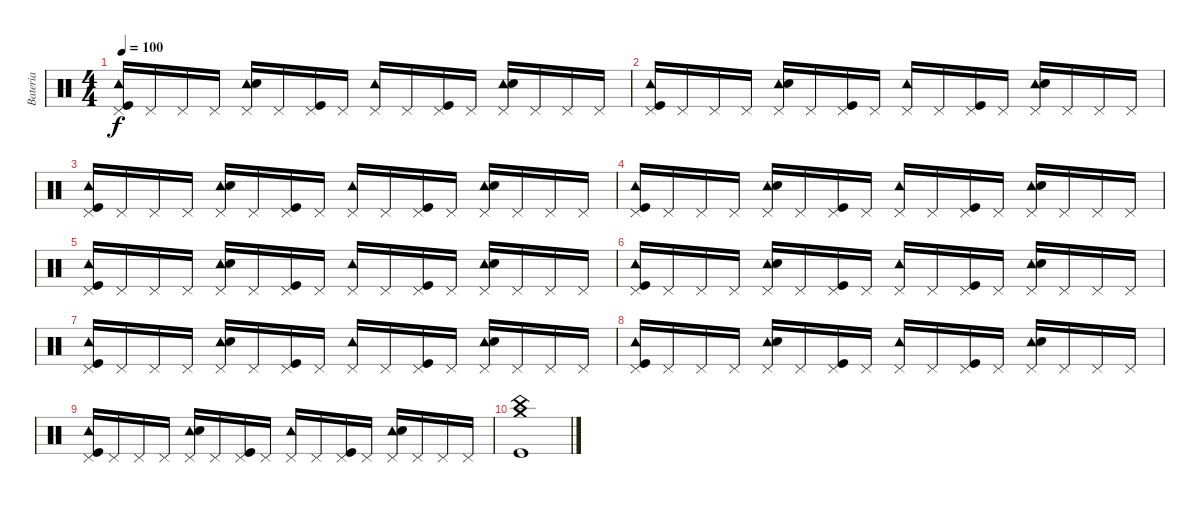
\track ("Bateria" "Bateria") {instrument percussion}
\staff {score}
\articulation defaults
\ts (4 4)
\tempo 100
\clef neutral
\ks c
("Tambourine (hit)" "Pedal Hi-Hat (hit)" "Kick (hit)").16{dy f} "Pedal Hi-Hat (hit)".16 "Pedal Hi-Hat (hit)".16 "Pedal Hi-Hat (hit)".16 ("Tambourine (hit)" "Pedal Hi-Hat (hit)" "Snare (hit) 2").16 "Pedal Hi-Hat (hit)".16 ("Pedal Hi-Hat (hit)" "Kick (hit)").16 "Pedal Hi-Hat (hit)".16 ("Tambourine (hit)" "Pedal Hi-Hat (hit)").16 "Pedal Hi-Hat (hit)".16 ("Pedal Hi-Hat (hit)" "Kick (hit)").16 "Pedal Hi-Hat (hit)".16 ("Tambourine (hit)" "Pedal Hi-Hat (hit)" "Snare (hit) 2").16 "Pedal Hi-Hat (hit)".16 "Pedal Hi-Hat (hit)".16 "Pedal Hi-Hat (hit)".16 |
("Tambourine (hit)" "Pedal Hi-Hat (hit)" "Kick (hit)").16 "Pedal Hi-Hat (hit)".16 "Pedal Hi-Hat (hit)".16 "Pedal Hi-Hat (hit)".16 ("Tambourine (hit)" "Pedal Hi-Hat (hit)" "Snare (hit) 2").16 "Pedal Hi-Hat (hit)".16 ("Pedal Hi-Hat (hit)" "Kick (hit)").16 "Pedal Hi-Hat (hit)".16 ("Tambourine (hit)" "Pedal Hi-Hat (hit)").16 "Pedal Hi-Hat (hit)".16 ("Pedal Hi-Hat (hit)" "Kick (hit)").16 "Pedal Hi-Hat (hit)".16 ("Tambourine (hit)" "Pedal Hi-Hat (hit)" "Snare (hit) 2").16 "Pedal Hi-Hat (hit)".16 "Pedal Hi-Hat (hit)".16 "Pedal Hi-Hat (hit)".16 |
("Tambourine (hit)" "Pedal Hi-Hat (hit)" "Kick (hit)").16 "Pedal Hi-Hat (hit)".16 "Pedal Hi-Hat (hit)".16 "Pedal Hi-Hat (hit)".16 ("Tambourine (hit)" "Pedal Hi-Hat (hit)" "Snare (hit) 2").16 "Pedal Hi-Hat (hit)".16 ("Pedal Hi-Hat (hit)" "Kick (hit)").16 "Pedal Hi-Hat (hit)".16 ("Tambourine (hit)" "Pedal Hi-Hat (hit)").16 "Pedal Hi-Hat (hit)".16 ("Pedal Hi-Hat (hit)" "Kick (hit)").16 "Pedal Hi-Hat (hit)".16 ("Tambourine (hit)" "Pedal Hi-Hat (hit)" "Snare (hit) 2").16 "Pedal Hi-Hat (hit)".16 "Pedal Hi-Hat (hit)".16 "Pedal Hi-Hat (hit)".16 |
("Tambourine (hit)" "Pedal Hi-Hat (hit)" "Kick (hit)").16 "Pedal Hi-Hat (hit)".16 "Pedal Hi-Hat (hit)".16 "Pedal Hi-Hat (hit)".16 ("Tambourine (hit)" "Pedal Hi-Hat (hit)" "Snare (hit) 2").16 "Pedal Hi-Hat (hit)".16 ("Pedal Hi-Hat (hit)" "Kick (hit)").16 "Pedal Hi-Hat (hit)".16 ("Tambourine (hit)" "Pedal Hi-Hat (hit)").16 "Pedal Hi-Hat (hit)".16 ("Pedal Hi-Hat (hit)" "Kick (hit)").16 "Pedal Hi-Hat (hit)".16 ("Tambourine (hit)" "Pedal Hi-Hat (hit)" "Snare (hit) 2").16 "Pedal Hi-Hat (hit)".16 "Pedal Hi-Hat (hit)".16 "Pedal Hi-Hat (hit)".16 |
("Tambourine (hit)" "Pedal Hi-Hat (hit)" "Kick (hit)").16 "Pedal Hi-Hat (hit)".16 "Pedal Hi-Hat (hit)".16 "Pedal Hi-Hat (hit)".16 ("Tambourine (hit)" "Pedal Hi-Hat (hit)" "Snare (hit) 2").16 "Pedal Hi-Hat (hit)".16 ("Pedal Hi-Hat (hit)" "Kick (hit)").16 "Pedal Hi-Hat (hit)".16 ("Tambourine (hit)" "Pedal Hi-Hat (hit)").16 "Pedal Hi-Hat (hit)".16 ("Pedal Hi-Hat (hit)" "Kick (hit)").16 "Pedal Hi-Hat (hit)".16 ("Tambourine (hit)" "Pedal Hi-Hat (hit)" "Snare (hit) 2").16 "Pedal Hi-Hat (hit)".16 "Pedal Hi-Hat (hit)".16 "Pedal Hi-Hat (hit)".16 |
("Tambourine (hit)" "Pedal Hi-Hat (hit)" "Kick (hit)").16 "Pedal Hi-Hat (hit)".16 "Pedal Hi-Hat (hit)".16 "Pedal Hi-Hat (hit)".16 ("Tambourine (hit)" "Pedal Hi-Hat (hit)" "Snare (hit) 2").16 "Pedal Hi-Hat (hit)".16 ("Pedal Hi-Hat (hit)" "Kick (hit)").16 "Pedal Hi-Hat (hit)".16 ("Tambourine (hit)" "Pedal Hi-Hat (hit)").16 "Pedal Hi-Hat (hit)".16 ("Pedal Hi-Hat (hit)" "Kick (hit)").16 "Pedal Hi-Hat (hit)".16 ("Tambourine (hit)" "Pedal Hi-Hat (hit)" "Snare (hit) 2").16 "Pedal Hi-Hat (hit)".16 "Pedal Hi-Hat (hit)".16 "Pedal Hi-Hat (hit)".16 |
("Tambourine (hit)" "Pedal Hi-Hat (hit)" "Kick (hit)").16 "Pedal Hi-Hat (hit)".16 "Pedal Hi-Hat (hit)".16 "Pedal Hi-Hat (hit)".16 ("Tambourine (hit)" "Pedal Hi-Hat (hit)" "Snare (hit) 2").16 "Pedal Hi-Hat (hit)".16 ("Pedal Hi-Hat (hit)" "Kick (hit)").16 "Pedal Hi-Hat (hit)".16 ("Tambourine (hit)" "Pedal Hi-Hat (hit)").16 "Pedal Hi-Hat (hit)".16 ("Pedal Hi-Hat (hit)" "Kick (hit)").16 "Pedal Hi-Hat (hit)".16 ("Tambourine (hit)" "Pedal Hi-Hat (hit)" "Snare (hit) 2").16 "Pedal Hi-Hat (hit)".16 "Pedal Hi-Hat (hit)".16 "Pedal Hi-Hat (hit)".16 |
("Tambourine (hit)" "Pedal Hi-Hat (hit)" "Kick (hit)").16 "Pedal Hi-Hat (hit)".16 "Pedal Hi-Hat (hit)".16 "Pedal Hi-Hat (hit)".16 ("Tambourine (hit)" "Pedal Hi-Hat (hit)" "Snare (hit) 2").16 "Pedal Hi-Hat (hit)".16 ("Pedal Hi-Hat (hit)" "Kick (hit)").16 "Pedal Hi-Hat (hit)".16 ("Tambourine (hit)" "Pedal Hi-Hat (hit)").16 "Pedal Hi-Hat (hit)".16 ("Pedal Hi-Hat (hit)" "Kick (hit)").16 "Pedal Hi-Hat (hit)".16 ("Tambourine (hit)" "Pedal Hi-Hat (hit)" "Snare (hit) 2").16 "Pedal Hi-Hat (hit)".16 "Pedal Hi-Hat (hit)".16 "Pedal Hi-Hat (hit)".16 |
("Tambourine (hit)" "Pedal Hi-Hat (hit)" "Kick (hit)").16 "Pedal Hi-Hat (hit)".16 "Pedal Hi-Hat (hit)".16 "Pedal Hi-Hat (hit)".16 ("Tambourine (hit)" "Pedal Hi-Hat (hit)" "Snare (hit) 2").16 "Pedal Hi-Hat (hit)".16 ("Pedal Hi-Hat (hit)" "Kick (hit)").16 "Pedal Hi-Hat (hit)".16 ("Tambourine (hit)" "Pedal Hi-Hat (hit)").16 "Pedal Hi-Hat (hit)".16 ("Pedal Hi-Hat (hit)" "Kick (hit)").16 "Pedal Hi-Hat (hit)".16 ("Tambourine (hit)" "Pedal Hi-Hat (hit)" "Snare (hit) 2").16 "Pedal Hi-Hat (hit)".16 "Pedal Hi-Hat (hit)".16 "Pedal Hi-Hat (hit)".16 |
("China (hit)" "Crash medium (hit)" "Kick (hit)").1
